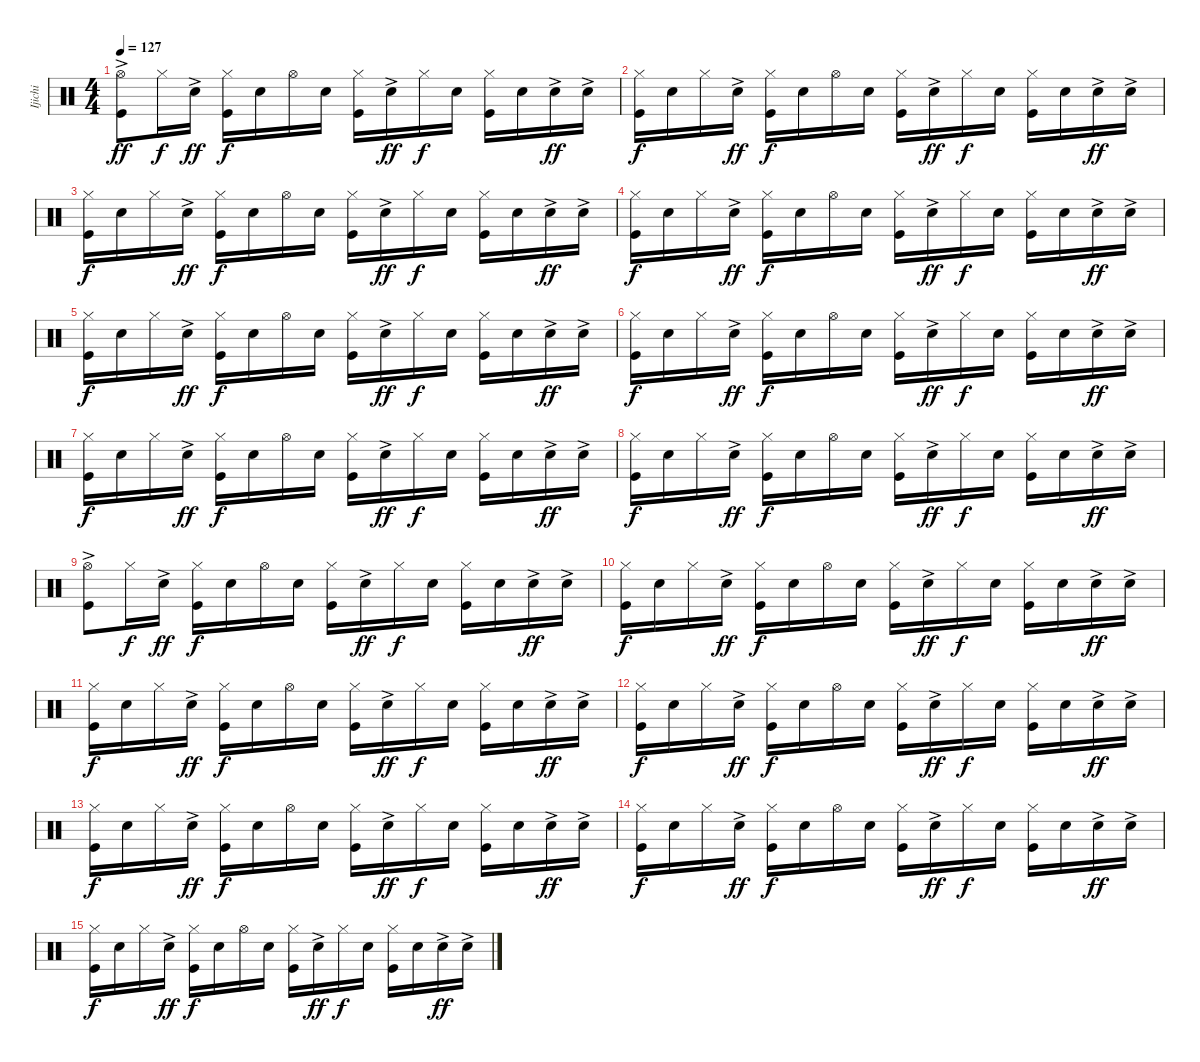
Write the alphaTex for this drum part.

\track ("Ijichi" "Ijichi") {instrument percussion}
\staff {score}
\articulation defaults
\ts (4 4)
\tempo 127
\clef neutral
\ks c
("Hi-Hat (open)"{ac} "Kick (hit)").8{dy ff} "Hi-Hat (closed)".16{dy f} "Electric Snare (hit)"{ac}.16{dy ff} ("Hi-Hat (closed)" "Kick (hit)").16{dy f} "Electric Snare (hit)".16 "Hi-Hat (open)".16 "Electric Snare (hit)".16 ("Hi-Hat (closed)" "Kick (hit)").16 "Electric Snare (hit)"{ac}.16{dy ff} "Hi-Hat (closed)".16{dy f} "Electric Snare (hit)".16 ("Hi-Hat (closed)" "Kick (hit)").16 "Electric Snare (hit)".16 "Electric Snare (hit)"{ac}.16{dy ff} "Electric Snare (hit)"{ac}.16 |
("Hi-Hat (closed)" "Kick (hit)").16{dy f} "Electric Snare (hit)".16 "Hi-Hat (closed)".16 "Electric Snare (hit)"{ac}.16{dy ff} ("Hi-Hat (closed)" "Kick (hit)").16{dy f} "Electric Snare (hit)".16 "Hi-Hat (open)".16 "Electric Snare (hit)".16 ("Hi-Hat (closed)" "Kick (hit)").16 "Electric Snare (hit)"{ac}.16{dy ff} "Hi-Hat (closed)".16{dy f} "Electric Snare (hit)".16 ("Hi-Hat (closed)" "Kick (hit)").16 "Electric Snare (hit)".16 "Electric Snare (hit)"{ac}.16{dy ff} "Electric Snare (hit)"{ac}.16 |
("Hi-Hat (closed)" "Kick (hit)").16{dy f} "Electric Snare (hit)".16 "Hi-Hat (closed)".16 "Electric Snare (hit)"{ac}.16{dy ff} ("Hi-Hat (closed)" "Kick (hit)").16{dy f} "Electric Snare (hit)".16 "Hi-Hat (open)".16 "Electric Snare (hit)".16 ("Hi-Hat (closed)" "Kick (hit)").16 "Electric Snare (hit)"{ac}.16{dy ff} "Hi-Hat (closed)".16{dy f} "Electric Snare (hit)".16 ("Hi-Hat (closed)" "Kick (hit)").16 "Electric Snare (hit)".16 "Electric Snare (hit)"{ac}.16{dy ff} "Electric Snare (hit)"{ac}.16 |
("Hi-Hat (closed)" "Kick (hit)").16{dy f} "Electric Snare (hit)".16 "Hi-Hat (closed)".16 "Electric Snare (hit)"{ac}.16{dy ff} ("Hi-Hat (closed)" "Kick (hit)").16{dy f} "Electric Snare (hit)".16 "Hi-Hat (open)".16 "Electric Snare (hit)".16 ("Hi-Hat (closed)" "Kick (hit)").16 "Electric Snare (hit)"{ac}.16{dy ff} "Hi-Hat (closed)".16{dy f} "Electric Snare (hit)".16 ("Hi-Hat (closed)" "Kick (hit)").16 "Electric Snare (hit)".16 "Electric Snare (hit)"{ac}.16{dy ff} "Electric Snare (hit)"{ac}.16 |
("Hi-Hat (closed)" "Kick (hit)").16{dy f} "Electric Snare (hit)".16 "Hi-Hat (closed)".16 "Electric Snare (hit)"{ac}.16{dy ff} ("Hi-Hat (closed)" "Kick (hit)").16{dy f} "Electric Snare (hit)".16 "Hi-Hat (open)".16 "Electric Snare (hit)".16 ("Hi-Hat (closed)" "Kick (hit)").16 "Electric Snare (hit)"{ac}.16{dy ff} "Hi-Hat (closed)".16{dy f} "Electric Snare (hit)".16 ("Hi-Hat (closed)" "Kick (hit)").16 "Electric Snare (hit)".16 "Electric Snare (hit)"{ac}.16{dy ff} "Electric Snare (hit)"{ac}.16 |
("Hi-Hat (closed)" "Kick (hit)").16{dy f} "Electric Snare (hit)".16 "Hi-Hat (closed)".16 "Electric Snare (hit)"{ac}.16{dy ff} ("Hi-Hat (closed)" "Kick (hit)").16{dy f} "Electric Snare (hit)".16 "Hi-Hat (open)".16 "Electric Snare (hit)".16 ("Hi-Hat (closed)" "Kick (hit)").16 "Electric Snare (hit)"{ac}.16{dy ff} "Hi-Hat (closed)".16{dy f} "Electric Snare (hit)".16 ("Hi-Hat (closed)" "Kick (hit)").16 "Electric Snare (hit)".16 "Electric Snare (hit)"{ac}.16{dy ff} "Electric Snare (hit)"{ac}.16 |
("Hi-Hat (closed)" "Kick (hit)").16{dy f} "Electric Snare (hit)".16 "Hi-Hat (closed)".16 "Electric Snare (hit)"{ac}.16{dy ff} ("Hi-Hat (closed)" "Kick (hit)").16{dy f} "Electric Snare (hit)".16 "Hi-Hat (open)".16 "Electric Snare (hit)".16 ("Hi-Hat (closed)" "Kick (hit)").16 "Electric Snare (hit)"{ac}.16{dy ff} "Hi-Hat (closed)".16{dy f} "Electric Snare (hit)".16 ("Hi-Hat (closed)" "Kick (hit)").16 "Electric Snare (hit)".16 "Electric Snare (hit)"{ac}.16{dy ff} "Electric Snare (hit)"{ac}.16 |
("Hi-Hat (closed)" "Kick (hit)").16{dy f} "Electric Snare (hit)".16 "Hi-Hat (closed)".16 "Electric Snare (hit)"{ac}.16{dy ff} ("Hi-Hat (closed)" "Kick (hit)").16{dy f} "Electric Snare (hit)".16 "Hi-Hat (open)".16 "Electric Snare (hit)".16 ("Hi-Hat (closed)" "Kick (hit)").16 "Electric Snare (hit)"{ac}.16{dy ff} "Hi-Hat (closed)".16{dy f} "Electric Snare (hit)".16 ("Hi-Hat (closed)" "Kick (hit)").16 "Electric Snare (hit)".16 "Electric Snare (hit)"{ac}.16{dy ff} "Electric Snare (hit)"{ac}.16 |
("Hi-Hat (open)"{ac} "Kick (hit)").8 "Hi-Hat (closed)".16{dy f} "Electric Snare (hit)"{ac}.16{dy ff} ("Hi-Hat (closed)" "Kick (hit)").16{dy f} "Electric Snare (hit)".16 "Hi-Hat (open)".16 "Electric Snare (hit)".16 ("Hi-Hat (closed)" "Kick (hit)").16 "Electric Snare (hit)"{ac}.16{dy ff} "Hi-Hat (closed)".16{dy f} "Electric Snare (hit)".16 ("Hi-Hat (closed)" "Kick (hit)").16 "Electric Snare (hit)".16 "Electric Snare (hit)"{ac}.16{dy ff} "Electric Snare (hit)"{ac}.16 |
("Hi-Hat (closed)" "Kick (hit)").16{dy f} "Electric Snare (hit)".16 "Hi-Hat (closed)".16 "Electric Snare (hit)"{ac}.16{dy ff} ("Hi-Hat (closed)" "Kick (hit)").16{dy f} "Electric Snare (hit)".16 "Hi-Hat (open)".16 "Electric Snare (hit)".16 ("Hi-Hat (closed)" "Kick (hit)").16 "Electric Snare (hit)"{ac}.16{dy ff} "Hi-Hat (closed)".16{dy f} "Electric Snare (hit)".16 ("Hi-Hat (closed)" "Kick (hit)").16 "Electric Snare (hit)".16 "Electric Snare (hit)"{ac}.16{dy ff} "Electric Snare (hit)"{ac}.16 |
("Hi-Hat (closed)" "Kick (hit)").16{dy f} "Electric Snare (hit)".16 "Hi-Hat (closed)".16 "Electric Snare (hit)"{ac}.16{dy ff} ("Hi-Hat (closed)" "Kick (hit)").16{dy f} "Electric Snare (hit)".16 "Hi-Hat (open)".16 "Electric Snare (hit)".16 ("Hi-Hat (closed)" "Kick (hit)").16 "Electric Snare (hit)"{ac}.16{dy ff} "Hi-Hat (closed)".16{dy f} "Electric Snare (hit)".16 ("Hi-Hat (closed)" "Kick (hit)").16 "Electric Snare (hit)".16 "Electric Snare (hit)"{ac}.16{dy ff} "Electric Snare (hit)"{ac}.16 |
("Hi-Hat (closed)" "Kick (hit)").16{dy f} "Electric Snare (hit)".16 "Hi-Hat (closed)".16 "Electric Snare (hit)"{ac}.16{dy ff} ("Hi-Hat (closed)" "Kick (hit)").16{dy f} "Electric Snare (hit)".16 "Hi-Hat (open)".16 "Electric Snare (hit)".16 ("Hi-Hat (closed)" "Kick (hit)").16 "Electric Snare (hit)"{ac}.16{dy ff} "Hi-Hat (closed)".16{dy f} "Electric Snare (hit)".16 ("Hi-Hat (closed)" "Kick (hit)").16 "Electric Snare (hit)".16 "Electric Snare (hit)"{ac}.16{dy ff} "Electric Snare (hit)"{ac}.16 |
("Hi-Hat (closed)" "Kick (hit)").16{dy f} "Electric Snare (hit)".16 "Hi-Hat (closed)".16 "Electric Snare (hit)"{ac}.16{dy ff} ("Hi-Hat (closed)" "Kick (hit)").16{dy f} "Electric Snare (hit)".16 "Hi-Hat (open)".16 "Electric Snare (hit)".16 ("Hi-Hat (closed)" "Kick (hit)").16 "Electric Snare (hit)"{ac}.16{dy ff} "Hi-Hat (closed)".16{dy f} "Electric Snare (hit)".16 ("Hi-Hat (closed)" "Kick (hit)").16 "Electric Snare (hit)".16 "Electric Snare (hit)"{ac}.16{dy ff} "Electric Snare (hit)"{ac}.16 |
("Hi-Hat (closed)" "Kick (hit)").16{dy f} "Electric Snare (hit)".16 "Hi-Hat (closed)".16 "Electric Snare (hit)"{ac}.16{dy ff} ("Hi-Hat (closed)" "Kick (hit)").16{dy f} "Electric Snare (hit)".16 "Hi-Hat (open)".16 "Electric Snare (hit)".16 ("Hi-Hat (closed)" "Kick (hit)").16 "Electric Snare (hit)"{ac}.16{dy ff} "Hi-Hat (closed)".16{dy f} "Electric Snare (hit)".16 ("Hi-Hat (closed)" "Kick (hit)").16 "Electric Snare (hit)".16 "Electric Snare (hit)"{ac}.16{dy ff} "Electric Snare (hit)"{ac}.16 |
("Hi-Hat (closed)" "Kick (hit)").16{dy f} "Electric Snare (hit)".16 "Hi-Hat (closed)".16 "Electric Snare (hit)"{ac}.16{dy ff} ("Hi-Hat (closed)" "Kick (hit)").16{dy f} "Electric Snare (hit)".16 "Hi-Hat (open)".16 "Electric Snare (hit)".16 ("Hi-Hat (closed)" "Kick (hit)").16 "Electric Snare (hit)"{ac}.16{dy ff} "Hi-Hat (closed)".16{dy f} "Electric Snare (hit)".16 ("Hi-Hat (closed)" "Kick (hit)").16 "Electric Snare (hit)".16 "Electric Snare (hit)"{ac}.16{dy ff} "Electric Snare (hit)"{ac}.16
